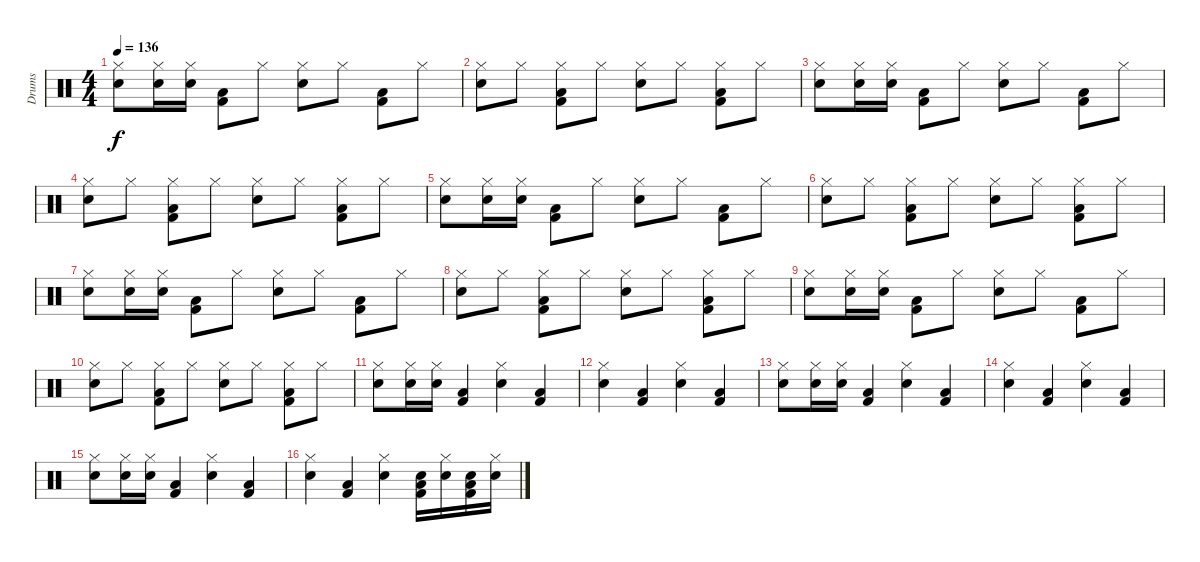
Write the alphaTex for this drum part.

\track ("Drums" "Drums") {instrument percussion}
\staff {score}
\articulation defaults
\ts (4 4)
\tempo 136
\clef neutral
\ks c
("Hi-Hat (closed)" "Snare (hit) 2").8{dy f} ("Hi-Hat (closed)" "Snare (hit) 2").16 ("Hi-Hat (closed)" "Snare (hit) 2").16 ("Kick (hit) 2" "Low Floor Tom (hit)").8 "Hi-Hat (closed)".8 ("Hi-Hat (closed)" "Snare (hit) 2").8 "Hi-Hat (closed)".8 ("Kick (hit) 2" "Low Floor Tom (hit)").8 "Hi-Hat (closed)".8 |
("Hi-Hat (closed)" "Snare (hit) 2").8 "Hi-Hat (closed)".8 ("Kick (hit) 2" "Low Floor Tom (hit)" "Hi-Hat (closed)").8 "Hi-Hat (closed)".8 ("Hi-Hat (closed)" "Snare (hit) 2").8 "Hi-Hat (closed)".8 ("Kick (hit) 2" "Low Floor Tom (hit)" "Hi-Hat (closed)").8 "Hi-Hat (closed)".8 |
("Hi-Hat (closed)" "Snare (hit) 2").8 ("Hi-Hat (closed)" "Snare (hit) 2").16 ("Hi-Hat (closed)" "Snare (hit) 2").16 ("Kick (hit) 2" "Low Floor Tom (hit)").8 "Hi-Hat (closed)".8 ("Hi-Hat (closed)" "Snare (hit) 2").8 "Hi-Hat (closed)".8 ("Kick (hit) 2" "Low Floor Tom (hit)").8 "Hi-Hat (closed)".8 |
("Hi-Hat (closed)" "Snare (hit) 2").8 "Hi-Hat (closed)".8 ("Kick (hit) 2" "Low Floor Tom (hit)" "Hi-Hat (closed)").8 "Hi-Hat (closed)".8 ("Hi-Hat (closed)" "Snare (hit) 2").8 "Hi-Hat (closed)".8 ("Kick (hit) 2" "Low Floor Tom (hit)" "Hi-Hat (closed)").8 "Hi-Hat (closed)".8 |
("Hi-Hat (closed)" "Snare (hit) 2").8 ("Hi-Hat (closed)" "Snare (hit) 2").16 ("Hi-Hat (closed)" "Snare (hit) 2").16 ("Kick (hit) 2" "Low Floor Tom (hit)").8 "Hi-Hat (closed)".8 ("Hi-Hat (closed)" "Snare (hit) 2").8 "Hi-Hat (closed)".8 ("Kick (hit) 2" "Low Floor Tom (hit)").8 "Hi-Hat (closed)".8 |
("Hi-Hat (closed)" "Snare (hit) 2").8 "Hi-Hat (closed)".8 ("Kick (hit) 2" "Low Floor Tom (hit)" "Hi-Hat (closed)").8 "Hi-Hat (closed)".8 ("Hi-Hat (closed)" "Snare (hit) 2").8 "Hi-Hat (closed)".8 ("Kick (hit) 2" "Low Floor Tom (hit)" "Hi-Hat (closed)").8 "Hi-Hat (closed)".8 |
("Hi-Hat (closed)" "Snare (hit) 2").8 ("Hi-Hat (closed)" "Snare (hit) 2").16 ("Hi-Hat (closed)" "Snare (hit) 2").16 ("Kick (hit) 2" "Low Floor Tom (hit)").8 "Hi-Hat (closed)".8 ("Hi-Hat (closed)" "Snare (hit) 2").8 "Hi-Hat (closed)".8 ("Kick (hit) 2" "Low Floor Tom (hit)").8 "Hi-Hat (closed)".8 |
("Hi-Hat (closed)" "Snare (hit) 2").8 "Hi-Hat (closed)".8 ("Kick (hit) 2" "Low Floor Tom (hit)" "Hi-Hat (closed)").8 "Hi-Hat (closed)".8 ("Hi-Hat (closed)" "Snare (hit) 2").8 "Hi-Hat (closed)".8 ("Kick (hit) 2" "Low Floor Tom (hit)" "Hi-Hat (closed)").8 "Hi-Hat (closed)".8 |
("Hi-Hat (closed)" "Snare (hit) 2").8 ("Hi-Hat (closed)" "Snare (hit) 2").16 ("Hi-Hat (closed)" "Snare (hit) 2").16 ("Kick (hit) 2" "Low Floor Tom (hit)").8 "Hi-Hat (closed)".8 ("Hi-Hat (closed)" "Snare (hit) 2").8 "Hi-Hat (closed)".8 ("Kick (hit) 2" "Low Floor Tom (hit)").8 "Hi-Hat (closed)".8 |
("Hi-Hat (closed)" "Snare (hit) 2").8 "Hi-Hat (closed)".8 ("Kick (hit) 2" "Low Floor Tom (hit)" "Hi-Hat (closed)").8 "Hi-Hat (closed)".8 ("Hi-Hat (closed)" "Snare (hit) 2").8 "Hi-Hat (closed)".8 ("Kick (hit) 2" "Low Floor Tom (hit)" "Hi-Hat (closed)").8 "Hi-Hat (closed)".8 |
("Hi-Hat (closed)" "Snare (hit) 2").8 ("Hi-Hat (closed)" "Snare (hit) 2").16 ("Hi-Hat (closed)" "Snare (hit) 2").16 ("Kick (hit) 2" "Low Floor Tom (hit)").4 ("Hi-Hat (closed)" "Snare (hit) 2").4 ("Kick (hit) 2" "Low Floor Tom (hit)").4 |
("Hi-Hat (closed)" "Snare (hit) 2").4 ("Kick (hit) 2" "Low Floor Tom (hit)").4 ("Hi-Hat (closed)" "Snare (hit) 2").4 ("Kick (hit) 2" "Low Floor Tom (hit)").4 |
("Hi-Hat (closed)" "Snare (hit) 2").8 ("Hi-Hat (closed)" "Snare (hit) 2").16 ("Hi-Hat (closed)" "Snare (hit) 2").16 ("Kick (hit) 2" "Low Floor Tom (hit)").4 ("Hi-Hat (closed)" "Snare (hit) 2").4 ("Kick (hit) 2" "Low Floor Tom (hit)").4 |
("Hi-Hat (closed)" "Snare (hit) 2").4 ("Kick (hit) 2" "Low Floor Tom (hit)").4 ("Hi-Hat (closed)" "Snare (hit) 2").4 ("Kick (hit) 2" "Low Floor Tom (hit)").4 |
("Hi-Hat (closed)" "Snare (hit) 2").8 ("Hi-Hat (closed)" "Snare (hit) 2").16 ("Hi-Hat (closed)" "Snare (hit) 2").16 ("Kick (hit) 2" "Low Floor Tom (hit)").4 ("Hi-Hat (closed)" "Snare (hit) 2").4 ("Kick (hit) 2" "Low Floor Tom (hit)").4 |
("Hi-Hat (closed)" "Snare (hit) 2").4 ("Kick (hit) 2" "Low Floor Tom (hit)").4 ("Hi-Hat (closed)" "Snare (hit) 2").4 ("Kick (hit) 2" "Low Floor Tom (hit)" "Snare (hit) 2").16 ("Hi-Hat (closed)" "Snare (hit) 2").16 ("Kick (hit) 2" "Low Floor Tom (hit)" "Snare (hit) 2").16 ("Hi-Hat (closed)" "Snare (hit) 2").16
